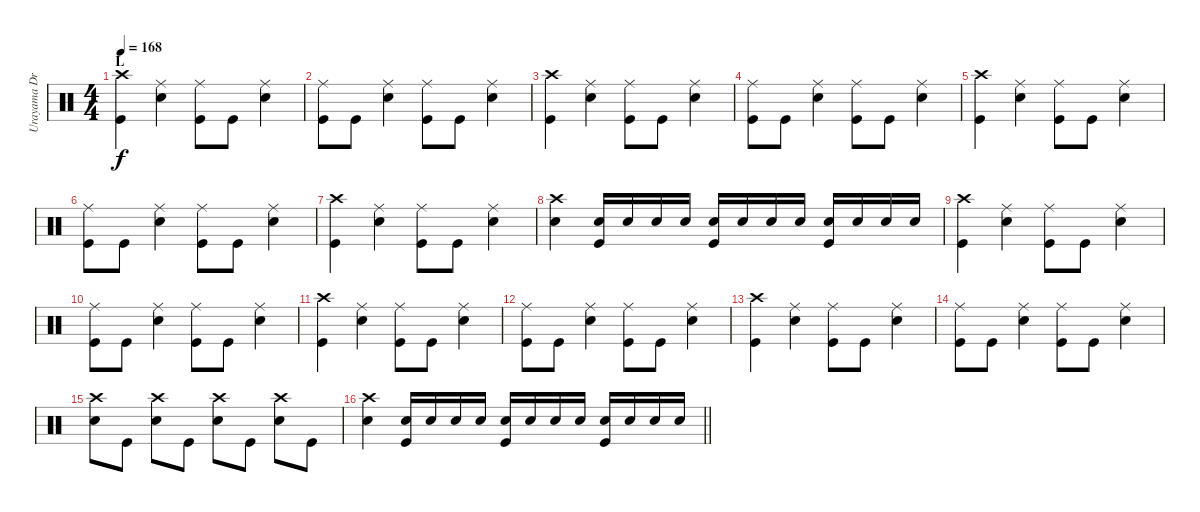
\track ("Urayama Drums" "Urayama Dr") {instrument percussion}
\staff {score}
\articulation defaults
\ts (4 4)
\section ("" "L")
\tempo 168
\clef neutral
\ks c
("Crash high (hit)" "Kick (hit)").4{dy f} ("Ride (middle)" "Electric Snare (hit)").4 ("Ride (middle)" "Kick (hit)").8 "Kick (hit)".8 ("Ride (middle)" "Electric Snare (hit)").4 |
("Ride (middle)" "Kick (hit)").8 "Kick (hit)".8 ("Ride (middle)" "Electric Snare (hit)").4 ("Ride (middle)" "Kick (hit)").8 "Kick (hit)".8 ("Ride (middle)" "Electric Snare (hit)").4 |
("Crash high (hit)" "Kick (hit)").4 ("Ride (middle)" "Electric Snare (hit)").4 ("Ride (middle)" "Kick (hit)").8 "Kick (hit)".8 ("Ride (middle)" "Electric Snare (hit)").4 |
("Ride (middle)" "Kick (hit)").8 "Kick (hit)".8 ("Ride (middle)" "Electric Snare (hit)").4 ("Ride (middle)" "Kick (hit)").8 "Kick (hit)".8 ("Ride (middle)" "Electric Snare (hit)").4 |
("Crash high (hit)" "Kick (hit)").4 ("Ride (middle)" "Electric Snare (hit)").4 ("Ride (middle)" "Kick (hit)").8 "Kick (hit)".8 ("Ride (middle)" "Electric Snare (hit)").4 |
("Ride (middle)" "Kick (hit)").8 "Kick (hit)".8 ("Ride (middle)" "Electric Snare (hit)").4 ("Ride (middle)" "Kick (hit)").8 "Kick (hit)".8 ("Ride (middle)" "Electric Snare (hit)").4 |
("Crash high (hit)" "Kick (hit)").4 ("Ride (middle)" "Electric Snare (hit)").4 ("Ride (middle)" "Kick (hit)").8 "Kick (hit)".8 ("Ride (middle)" "Electric Snare (hit)").4 |
("Crash high (hit)" "Electric Snare (hit)").4 ("Electric Snare (hit)" "Kick (hit)").16 "Electric Snare (hit)".16 "Electric Snare (hit)".16 "Electric Snare (hit)".16 ("Electric Snare (hit)" "Kick (hit)").16 "Electric Snare (hit)".16 "Electric Snare (hit)".16 "Electric Snare (hit)".16 ("Electric Snare (hit)" "Kick (hit)").16 "Electric Snare (hit)".16 "Electric Snare (hit)".16 "Electric Snare (hit)".16 |
("Crash high (hit)" "Kick (hit)").4 ("Ride (middle)" "Electric Snare (hit)").4 ("Ride (middle)" "Kick (hit)").8 "Kick (hit)".8 ("Ride (middle)" "Electric Snare (hit)").4 |
("Ride (middle)" "Kick (hit)").8 "Kick (hit)".8 ("Ride (middle)" "Electric Snare (hit)").4 ("Ride (middle)" "Kick (hit)").8 "Kick (hit)".8 ("Ride (middle)" "Electric Snare (hit)").4 |
("Crash high (hit)" "Kick (hit)").4 ("Ride (middle)" "Electric Snare (hit)").4 ("Ride (middle)" "Kick (hit)").8 "Kick (hit)".8 ("Ride (middle)" "Electric Snare (hit)").4 |
("Ride (middle)" "Kick (hit)").8 "Kick (hit)".8 ("Ride (middle)" "Electric Snare (hit)").4 ("Ride (middle)" "Kick (hit)").8 "Kick (hit)".8 ("Ride (middle)" "Electric Snare (hit)").4 |
("Crash high (hit)" "Kick (hit)").4 ("Ride (middle)" "Electric Snare (hit)").4 ("Ride (middle)" "Kick (hit)").8 "Kick (hit)".8 ("Ride (middle)" "Electric Snare (hit)").4 |
("Ride (middle)" "Kick (hit)").8 "Kick (hit)".8 ("Ride (middle)" "Electric Snare (hit)").4 ("Ride (middle)" "Kick (hit)").8 "Kick (hit)".8 ("Ride (middle)" "Electric Snare (hit)").4 |
("Crash high (hit)" "Electric Snare (hit)").8 "Kick (hit)".8 ("Crash high (hit)" "Electric Snare (hit)").8 "Kick (hit)".8 ("Crash high (hit)" "Electric Snare (hit)").8 "Kick (hit)".8 ("Crash high (hit)" "Electric Snare (hit)").8 "Kick (hit)".8 |
\barLineRight lightlight
("Crash high (hit)" "Electric Snare (hit)").4 ("Electric Snare (hit)" "Kick (hit)").16 "Electric Snare (hit)".16 "Electric Snare (hit)".16 "Electric Snare (hit)".16 ("Electric Snare (hit)" "Kick (hit)").16 "Electric Snare (hit)".16 "Electric Snare (hit)".16 "Electric Snare (hit)".16 ("Electric Snare (hit)" "Kick (hit)").16 "Electric Snare (hit)".16 "Electric Snare (hit)".16 "Electric Snare (hit)".16
